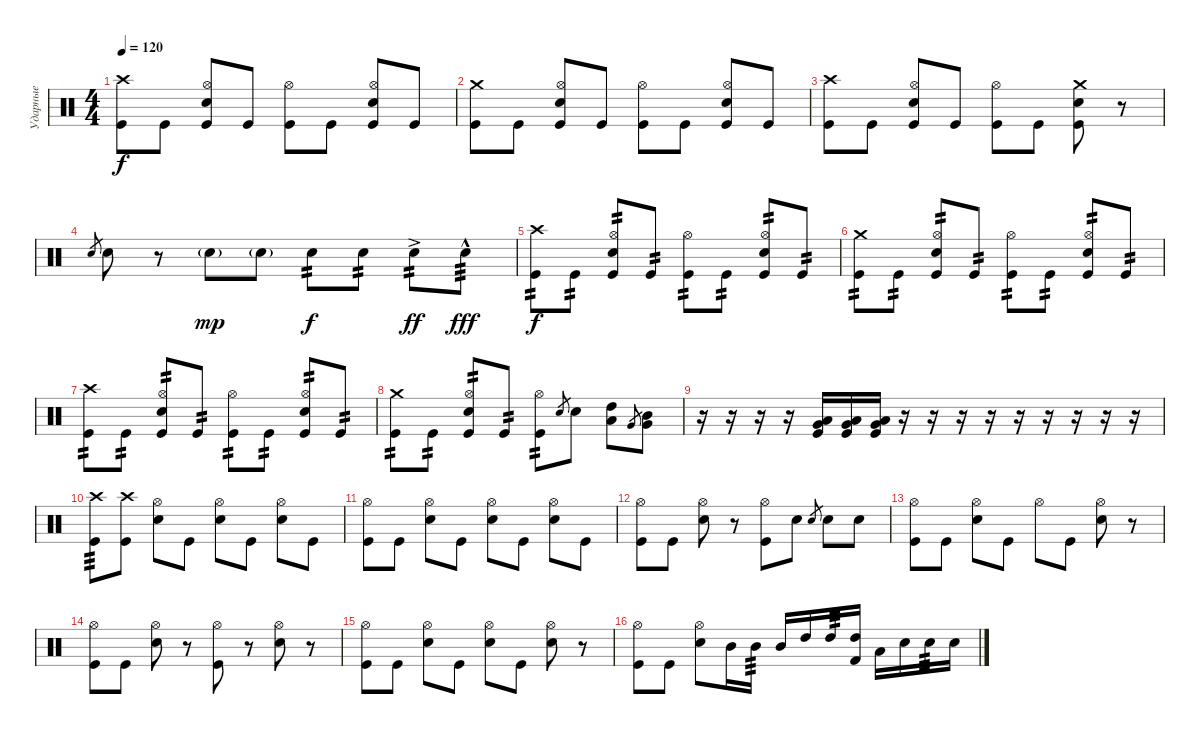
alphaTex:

\track ("Ударные" "Ударные") {instrument percussion}
\staff {score}
\articulation defaults
\ts (4 4)
\tempo 120
\clef neutral
\ks c
("Crash high (hit)" "Kick (hit)").8{dy f} "Kick (hit)".8 ("Hi-Hat (open)" "Snare (hit) 2" "Kick (hit)").8 "Kick (hit)".8 ("Hi-Hat (open)" "Kick (hit)").8 "Kick (hit)".8 ("Hi-Hat (open)" "Snare (hit) 2" "Kick (hit)").8 "Kick (hit)".8 |
("Crash medium (hit)" "Kick (hit)").8 "Kick (hit)".8 ("Hi-Hat (open)" "Snare (hit) 2" "Kick (hit)").8 "Kick (hit)".8 ("Hi-Hat (open)" "Kick (hit)").8 "Kick (hit)".8 ("Hi-Hat (open)" "Snare (hit) 2" "Kick (hit)").8 "Kick (hit)".8 |
("Crash high (hit)" "Kick (hit)").8 "Kick (hit)".8 ("Hi-Hat (open)" "Snare (hit) 2" "Kick (hit)").8 "Kick (hit)".8 ("Hi-Hat (open)" "Kick (hit)").8 "Kick (hit)".8 ("Crash medium (hit)" "Snare (hit) 2" "Kick (hit)").8 r.8 |
"Snare (hit) 2".8{gr} "Snare (hit) 2".8 r.8 "Snare (hit) 2"{g}.8{dy mp} "Snare (hit) 2"{g}.8 "Snare (hit) 2".8{tp 2 dy f} "Snare (hit) 2".8{tp 2} "Snare (hit) 2"{ac}.8{tp 2 dy ff} "Snare (hit) 2"{hac}.8{tp 3 dy fff} |
("Crash high (hit)" "Kick (hit)").8{tp 2 dy f} "Kick (hit)".8{tp 2} ("Hi-Hat (open)" "Snare (hit) 2" "Kick (hit)").8{tp 2} "Kick (hit)".8{tp 2} ("Hi-Hat (open)" "Kick (hit)").8{tp 2} "Kick (hit)".8{tp 2} ("Hi-Hat (open)" "Snare (hit) 2" "Kick (hit)").8{tp 2} "Kick (hit)".8{tp 2} |
("Crash medium (hit)" "Kick (hit)").8{tp 2} "Kick (hit)".8{tp 2} ("Hi-Hat (open)" "Snare (hit) 2" "Kick (hit)").8{tp 2} "Kick (hit)".8{tp 2} ("Hi-Hat (open)" "Kick (hit)").8{tp 2} "Kick (hit)".8{tp 2} ("Hi-Hat (open)" "Snare (hit) 2" "Kick (hit)").8{tp 2} "Kick (hit)".8{tp 2} |
("Crash high (hit)" "Kick (hit)").8{tp 2} "Kick (hit)".8{tp 2} ("Hi-Hat (open)" "Snare (hit) 2" "Kick (hit)").8{tp 2} "Kick (hit)".8{tp 2} ("Hi-Hat (open)" "Kick (hit)").8{tp 2} "Kick (hit)".8{tp 2} ("Hi-Hat (open)" "Snare (hit) 2" "Kick (hit)").8{tp 2} "Kick (hit)".8{tp 2} |
("Crash medium (hit)" "Kick (hit)").8{tp 2} "Kick (hit)".8{tp 2} ("Hi-Hat (open)" "Snare (hit) 2" "Kick (hit)").8{tp 2} "Kick (hit)".8{tp 2} ("Hi-Hat (open)" "Kick (hit)").8{tp 2} "Snare (hit) 2".8{gr} "Snare (hit) 2".8 ("High Tom (hit)" "Low Tom (hit)").8 "Very Low Tom (hit)".8{gr} ("Mid Tom (hit)" "Very Low Tom (hit)").8 |
r.16 r.16 r.16 r.16 ("Low Floor Tom (hit)" "Very Low Tom (hit)" "Kick (hit)").16 ("Low Floor Tom (hit)" "Very Low Tom (hit)" "Kick (hit)").16 ("Low Floor Tom (hit)" "Very Low Tom (hit)" "Kick (hit)").16 r.16 r.16 r.16 r.16 r.16 r.16 r.16 r.16 r.16 |
("Crash high (hit)" "Kick (hit)").8{tp 3} ("Crash high (hit)" "Kick (hit)").8 ("Hi-Hat (open)" "Snare (hit) 2").8 "Kick (hit)".8 ("Hi-Hat (open)" "Snare (hit) 2").8 "Kick (hit)".8 ("Hi-Hat (open)" "Snare (hit) 2").8 "Kick (hit)".8 |
("Hi-Hat (open)" "Kick (hit)").8 "Kick (hit)".8 ("Hi-Hat (open)" "Snare (hit) 2").8 "Kick (hit)".8 ("Hi-Hat (open)" "Snare (hit) 2").8 "Kick (hit)".8 ("Hi-Hat (open)" "Snare (hit) 2").8 "Kick (hit)".8 |
("Hi-Hat (open)" "Kick (hit)").8 "Kick (hit)".8 ("Hi-Hat (open)" "Snare (hit) 2").8 r.8 ("Hi-Hat (open)" "Kick (hit)").8 "Snare (hit) 2".8 "Snare (hit) 2".8{gr} "Snare (hit) 2".8 "Snare (hit) 2".8 |
("Hi-Hat (open)" "Kick (hit)").8 "Kick (hit)".8 ("Hi-Hat (open)" "Snare (hit) 2").8 "Kick (hit)".8 "Hi-Hat (open)".8 "Kick (hit)".8 ("Hi-Hat (open)" "Snare (hit) 2").8 r.8 |
("Hi-Hat (open)" "Kick (hit)").8 "Kick (hit)".8 ("Hi-Hat (open)" "Snare (hit) 2").8 r.8 ("Hi-Hat (open)" "Kick (hit)").8 r.8 ("Hi-Hat (open)" "Snare (hit) 2").8 r.8 |
("Hi-Hat (open)" "Kick (hit)").8 "Kick (hit)".8 ("Hi-Hat (open)" "Snare (hit) 2").8 "Kick (hit)".8 ("Hi-Hat (open)" "Snare (hit) 2").8 "Kick (hit)".8 ("Hi-Hat (open)" "Snare (hit) 2").8 r.8 |
("Hi-Hat (open)" "Kick (hit)").8 "Kick (hit)".8 ("Hi-Hat (open)" "Snare (hit) 2").8 "Mid Tom (hit)".16 "Mid Tom (hit)".16{tp 3} "Mid Tom (hit)".16 "High Tom (hit)".16 "High Tom (hit)".16{tp 3} ("High Tom (hit)" "Kick (hit) 2").16 "Low Tom (hit)".16 "Snare (hit) 2".16 "Snare (hit) 2".16{tp 3} "Snare (hit) 2".16
